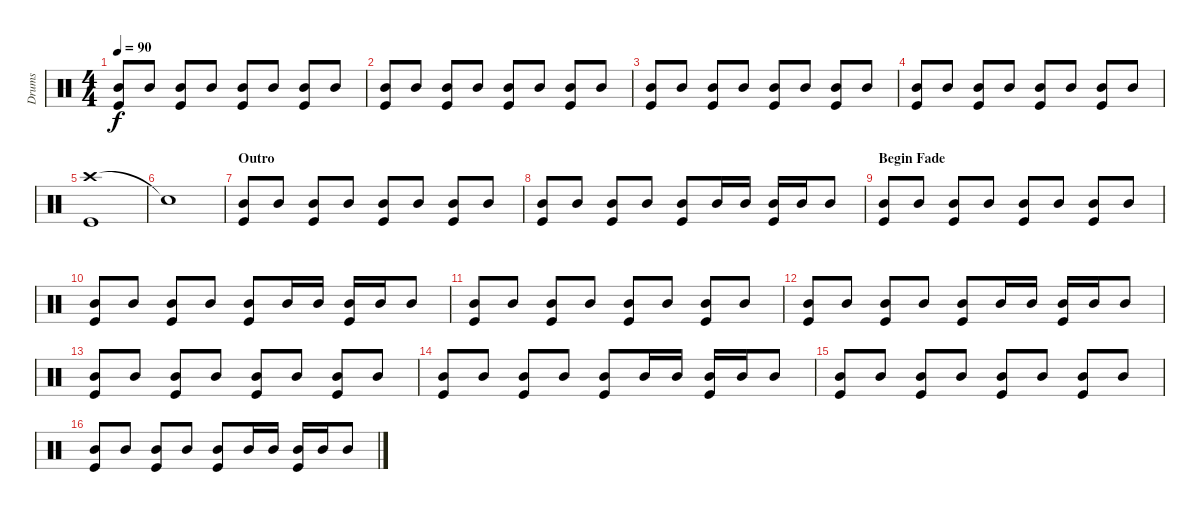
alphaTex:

\track ("Drums" "Drums") {instrument percussion}
\staff {score}
\articulation defaults
\ts (4 4)
\tempo 90
\clef neutral
\ks c
("Mid Tom (hit)" "Kick (hit)").8{dy f} "Mid Tom (hit)".8 ("Mid Tom (hit)" "Kick (hit)").8 "Mid Tom (hit)".8 ("Mid Tom (hit)" "Kick (hit)").8 "Mid Tom (hit)".8 ("Mid Tom (hit)" "Kick (hit)").8 "Mid Tom (hit)".8 |
("Mid Tom (hit)" "Kick (hit)").8 "Mid Tom (hit)".8 ("Mid Tom (hit)" "Kick (hit)").8 "Mid Tom (hit)".8 ("Mid Tom (hit)" "Kick (hit)").8 "Mid Tom (hit)".8 ("Mid Tom (hit)" "Kick (hit)").8 "Mid Tom (hit)".8 |
("Mid Tom (hit)" "Kick (hit)").8 "Mid Tom (hit)".8 ("Mid Tom (hit)" "Kick (hit)").8 "Mid Tom (hit)".8 ("Mid Tom (hit)" "Kick (hit)").8 "Mid Tom (hit)".8 ("Mid Tom (hit)" "Kick (hit)").8 "Mid Tom (hit)".8 |
("Mid Tom (hit)" "Kick (hit)").8 "Mid Tom (hit)".8 ("Mid Tom (hit)" "Kick (hit)").8 "Mid Tom (hit)".8 ("Mid Tom (hit)" "Kick (hit)").8 "Mid Tom (hit)".8 ("Mid Tom (hit)" "Kick (hit)").8 "Mid Tom (hit)".8 |
("Crash high (hit)" "Kick (hit)").1 |
"Snare (hit)"{t}.1 |
\section ("" "Outro")
("Mid Tom (hit)" "Kick (hit)").8{volume 16} "Mid Tom (hit)".8 ("Mid Tom (hit)" "Kick (hit)").8 "Mid Tom (hit)".8 ("Mid Tom (hit)" "Kick (hit)").8 "Mid Tom (hit)".8 ("Mid Tom (hit)" "Kick (hit)").8 "Mid Tom (hit)".8 |
("Mid Tom (hit)" "Kick (hit)").8 "Mid Tom (hit)".8 ("Mid Tom (hit)" "Kick (hit)").8 "Mid Tom (hit)".8 ("Mid Tom (hit)" "Kick (hit)").8 "Mid Tom (hit)".16 "Mid Tom (hit)".16 ("Mid Tom (hit)" "Kick (hit)").16 "Mid Tom (hit)".16 "Mid Tom (hit)".8 |
\section ("" "Begin Fade")
("Mid Tom (hit)" "Kick (hit)").8{volume 14} "Mid Tom (hit)".8 ("Mid Tom (hit)" "Kick (hit)").8 "Mid Tom (hit)".8 ("Mid Tom (hit)" "Kick (hit)").8 "Mid Tom (hit)".8 ("Mid Tom (hit)" "Kick (hit)").8 "Mid Tom (hit)".8 |
("Mid Tom (hit)" "Kick (hit)").8 "Mid Tom (hit)".8 ("Mid Tom (hit)" "Kick (hit)").8 "Mid Tom (hit)".8 ("Mid Tom (hit)" "Kick (hit)").8 "Mid Tom (hit)".16 "Mid Tom (hit)".16 ("Mid Tom (hit)" "Kick (hit)").16 "Mid Tom (hit)".16 "Mid Tom (hit)".8 |
("Mid Tom (hit)" "Kick (hit)").8{volume 12} "Mid Tom (hit)".8 ("Mid Tom (hit)" "Kick (hit)").8 "Mid Tom (hit)".8 ("Mid Tom (hit)" "Kick (hit)").8 "Mid Tom (hit)".8 ("Mid Tom (hit)" "Kick (hit)").8 "Mid Tom (hit)".8 |
("Mid Tom (hit)" "Kick (hit)").8 "Mid Tom (hit)".8 ("Mid Tom (hit)" "Kick (hit)").8 "Mid Tom (hit)".8 ("Mid Tom (hit)" "Kick (hit)").8 "Mid Tom (hit)".16 "Mid Tom (hit)".16 ("Mid Tom (hit)" "Kick (hit)").16 "Mid Tom (hit)".16 "Mid Tom (hit)".8 |
("Mid Tom (hit)" "Kick (hit)").8{volume 10} "Mid Tom (hit)".8 ("Mid Tom (hit)" "Kick (hit)").8 "Mid Tom (hit)".8 ("Mid Tom (hit)" "Kick (hit)").8 "Mid Tom (hit)".8 ("Mid Tom (hit)" "Kick (hit)").8 "Mid Tom (hit)".8 |
("Mid Tom (hit)" "Kick (hit)").8 "Mid Tom (hit)".8 ("Mid Tom (hit)" "Kick (hit)").8 "Mid Tom (hit)".8 ("Mid Tom (hit)" "Kick (hit)").8 "Mid Tom (hit)".16 "Mid Tom (hit)".16 ("Mid Tom (hit)" "Kick (hit)").16 "Mid Tom (hit)".16 "Mid Tom (hit)".8 |
("Mid Tom (hit)" "Kick (hit)").8{volume 8} "Mid Tom (hit)".8 ("Mid Tom (hit)" "Kick (hit)").8 "Mid Tom (hit)".8 ("Mid Tom (hit)" "Kick (hit)").8 "Mid Tom (hit)".8 ("Mid Tom (hit)" "Kick (hit)").8 "Mid Tom (hit)".8 |
("Mid Tom (hit)" "Kick (hit)").8 "Mid Tom (hit)".8 ("Mid Tom (hit)" "Kick (hit)").8 "Mid Tom (hit)".8 ("Mid Tom (hit)" "Kick (hit)").8 "Mid Tom (hit)".16 "Mid Tom (hit)".16 ("Mid Tom (hit)" "Kick (hit)").16 "Mid Tom (hit)".16 "Mid Tom (hit)".8
